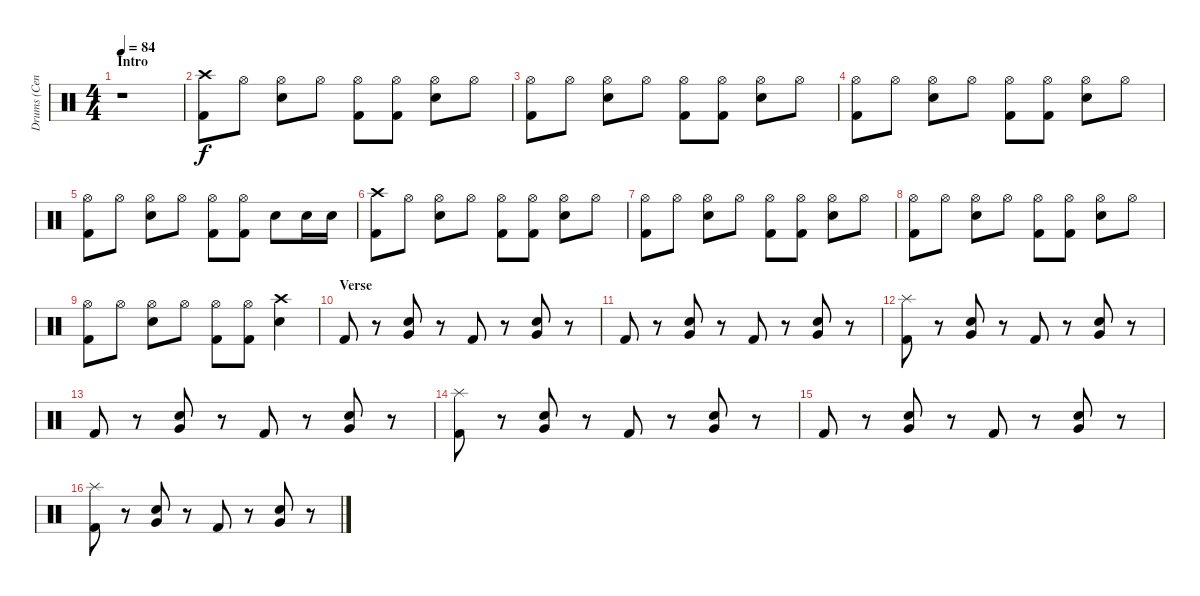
\track ("Drums (Cenk)" "Drums (Cen") {instrument percussion}
\staff {score}
\articulation defaults
\ts (4 4)
\section ("" "Intro")
\tempo 84
\clef neutral
\ks c
r.1{dy f} |
("Crash high (hit)" "Kick (hit) 2").8 "Hi-Hat (open)".8 ("Hi-Hat (open)" "Snare (hit) 2").8 "Hi-Hat (open)".8 ("Hi-Hat (open)" "Kick (hit) 2").8 ("Hi-Hat (open)" "Kick (hit) 2").8 ("Hi-Hat (open)" "Snare (hit) 2").8 "Hi-Hat (open)".8 |
("Hi-Hat (open)" "Kick (hit) 2").8 "Hi-Hat (open)".8 ("Hi-Hat (open)" "Snare (hit) 2").8 "Hi-Hat (open)".8 ("Hi-Hat (open)" "Kick (hit) 2").8 ("Hi-Hat (open)" "Kick (hit) 2").8 ("Hi-Hat (open)" "Snare (hit) 2").8 "Hi-Hat (open)".8 |
("Hi-Hat (open)" "Kick (hit) 2").8 "Hi-Hat (open)".8 ("Hi-Hat (open)" "Snare (hit) 2").8 "Hi-Hat (open)".8 ("Hi-Hat (open)" "Kick (hit) 2").8 ("Hi-Hat (open)" "Kick (hit) 2").8 ("Hi-Hat (open)" "Snare (hit) 2").8 "Hi-Hat (open)".8 |
("Hi-Hat (open)" "Kick (hit) 2").8 "Hi-Hat (open)".8 ("Hi-Hat (open)" "Snare (hit) 2").8 "Hi-Hat (open)".8 ("Hi-Hat (open)" "Kick (hit) 2").8 ("Hi-Hat (open)" "Kick (hit) 2").8 "Snare (hit) 2".8 "Snare (hit) 2".16 "Snare (hit) 2".16 |
("Crash high (hit)" "Kick (hit) 2").8 "Hi-Hat (open)".8 ("Hi-Hat (open)" "Snare (hit) 2").8 "Hi-Hat (open)".8 ("Hi-Hat (open)" "Kick (hit) 2").8 ("Hi-Hat (open)" "Kick (hit) 2").8 ("Hi-Hat (open)" "Snare (hit) 2").8 "Hi-Hat (open)".8 |
("Hi-Hat (open)" "Kick (hit) 2").8 "Hi-Hat (open)".8 ("Hi-Hat (open)" "Snare (hit) 2").8 "Hi-Hat (open)".8 ("Hi-Hat (open)" "Kick (hit) 2").8 ("Hi-Hat (open)" "Kick (hit) 2").8 ("Hi-Hat (open)" "Snare (hit) 2").8 "Hi-Hat (open)".8 |
("Hi-Hat (open)" "Kick (hit) 2").8 "Hi-Hat (open)".8 ("Hi-Hat (open)" "Snare (hit) 2").8 "Hi-Hat (open)".8 ("Hi-Hat (open)" "Kick (hit) 2").8 ("Hi-Hat (open)" "Kick (hit) 2").8 ("Hi-Hat (open)" "Snare (hit) 2").8 "Hi-Hat (open)".8 |
("Hi-Hat (open)" "Kick (hit) 2").8 "Hi-Hat (open)".8 ("Hi-Hat (open)" "Snare (hit) 2").8 "Hi-Hat (open)".8 ("Hi-Hat (open)" "Kick (hit) 2").8 ("Hi-Hat (open)" "Kick (hit) 2").8 ("Crash high (hit)" "Snare (hit) 2").4 |
\section ("" "Verse")
"Kick (hit) 2".8 r.8 ("Very Low Tom (hit)" "Snare (hit) 2").8 r.8 "Kick (hit) 2".8 r.8 ("Very Low Tom (hit)" "Snare (hit) 2").8 r.8 |
"Kick (hit) 2".8 r.8 ("Very Low Tom (hit)" "Snare (hit) 2").8 r.8 "Kick (hit) 2".8 r.8 ("Very Low Tom (hit)" "Snare (hit) 2").8 r.8 |
("Splash (hit)" "Kick (hit) 2").8 r.8 ("Very Low Tom (hit)" "Snare (hit) 2").8 r.8 "Kick (hit) 2".8 r.8 ("Very Low Tom (hit)" "Snare (hit) 2").8 r.8 |
"Kick (hit) 2".8 r.8 ("Very Low Tom (hit)" "Snare (hit) 2").8 r.8 "Kick (hit) 2".8 r.8 ("Very Low Tom (hit)" "Snare (hit) 2").8 r.8 |
("Splash (hit)" "Kick (hit) 2").8 r.8 ("Very Low Tom (hit)" "Snare (hit) 2").8 r.8 "Kick (hit) 2".8 r.8 ("Very Low Tom (hit)" "Snare (hit) 2").8 r.8 |
"Kick (hit) 2".8 r.8 ("Very Low Tom (hit)" "Snare (hit) 2").8 r.8 "Kick (hit) 2".8 r.8 ("Very Low Tom (hit)" "Snare (hit) 2").8 r.8 |
("Splash (hit)" "Kick (hit) 2").8 r.8 ("Very Low Tom (hit)" "Snare (hit) 2").8 r.8 "Kick (hit) 2".8 r.8 ("Very Low Tom (hit)" "Snare (hit) 2").8 r.8
